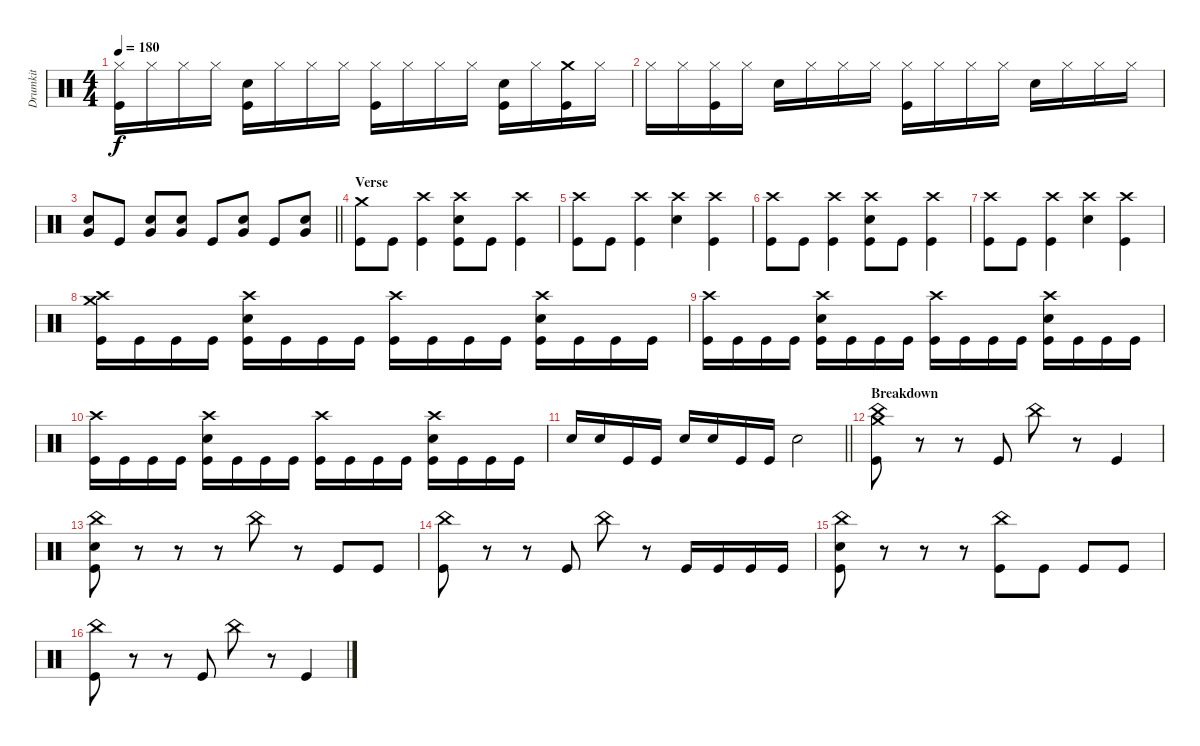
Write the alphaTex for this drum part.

\track ("Drumkit" "Drumkit") {instrument percussion}
\staff {score}
\articulation defaults
\ts (4 4)
\tempo 180
\clef neutral
\ks c
("Hi-Hat (closed)" "Kick (hit)").16{dy f} "Hi-Hat (closed)".16 "Hi-Hat (closed)".16 "Hi-Hat (closed)".16 ("Snare (hit) 2" "Kick (hit)").16 "Hi-Hat (closed)".16 "Hi-Hat (closed)".16 "Hi-Hat (closed)".16 ("Hi-Hat (closed)" "Kick (hit)").16 "Hi-Hat (closed)".16 "Hi-Hat (closed)".16 "Hi-Hat (closed)".16 ("Snare (hit) 2" "Kick (hit)").16 "Hi-Hat (closed)".16 ("Crash medium (hit)" "Kick (hit)").16 "Hi-Hat (closed)".16 |
"Hi-Hat (closed)".16 "Hi-Hat (closed)".16 ("Hi-Hat (closed)" "Kick (hit)").16 "Hi-Hat (closed)".16 "Snare (hit) 2".16 "Hi-Hat (closed)".16 "Hi-Hat (closed)".16 "Hi-Hat (closed)".16 ("Hi-Hat (closed)" "Kick (hit)").16 "Hi-Hat (closed)".16 "Hi-Hat (closed)".16 "Hi-Hat (closed)".16 "Snare (hit) 2".16 "Hi-Hat (closed)".16 "Hi-Hat (closed)".16 "Hi-Hat (closed)".16 |
\barLineRight lightlight
("Very Low Tom (hit)" "Snare (hit) 2").8 "Kick (hit)".8 ("Snare (hit) 2" "Very Low Tom (hit)").8 ("Snare (hit) 2" "Very Low Tom (hit)").8 "Kick (hit)".8 ("Snare (hit) 2" "Very Low Tom (hit)").8 "Kick (hit)".8 ("Very Low Tom (hit)" "Snare (hit) 2").8 |
\section ("" "Verse")
("Crash medium (hit)" "Kick (hit)").8 "Kick (hit)".8 ("Crash high (hit)" "Kick (hit)").4 ("Crash high (hit)" "Snare (hit) 2" "Kick (hit)").8 "Kick (hit)".8 ("Crash high (hit)" "Kick (hit)").4 |
("Crash high (hit)" "Kick (hit)").8 "Kick (hit)".8 ("Crash high (hit)" "Kick (hit)").4 ("Crash high (hit)" "Snare (hit) 2").4 ("Crash high (hit)" "Kick (hit)").4 |
("Crash high (hit)" "Kick (hit)").8 "Kick (hit)".8 ("Crash high (hit)" "Kick (hit)").4 ("Crash high (hit)" "Snare (hit) 2" "Kick (hit)").8 "Kick (hit)".8 ("Crash high (hit)" "Kick (hit)").4 |
("Crash high (hit)" "Kick (hit)").8 "Kick (hit)".8 ("Crash high (hit)" "Kick (hit)").4 ("Crash high (hit)" "Snare (hit) 2").4 ("Crash high (hit)" "Kick (hit)").4 |
("Crash medium (hit)" "Crash high (hit)" "Kick (hit)").16 "Kick (hit)".16 "Kick (hit)".16 "Kick (hit)".16 ("Crash high (hit)" "Snare (hit) 2" "Kick (hit)").16 "Kick (hit)".16 "Kick (hit)".16 "Kick (hit)".16 ("Crash high (hit)" "Kick (hit)").16 "Kick (hit)".16 "Kick (hit)".16 "Kick (hit)".16 ("Crash high (hit)" "Snare (hit) 2" "Kick (hit)").16 "Kick (hit)".16 "Kick (hit)".16 "Kick (hit)".16 |
("Crash high (hit)" "Kick (hit)").16 "Kick (hit)".16 "Kick (hit)".16 "Kick (hit)".16 ("Crash high (hit)" "Snare (hit) 2" "Kick (hit)").16 "Kick (hit)".16 "Kick (hit)".16 "Kick (hit)".16 ("Crash high (hit)" "Kick (hit)").16 "Kick (hit)".16 "Kick (hit)".16 "Kick (hit)".16 ("Crash high (hit)" "Snare (hit) 2" "Kick (hit)").16 "Kick (hit)".16 "Kick (hit)".16 "Kick (hit)".16 |
("Crash high (hit)" "Kick (hit)").16 "Kick (hit)".16 "Kick (hit)".16 "Kick (hit)".16 ("Crash high (hit)" "Snare (hit) 2" "Kick (hit)").16 "Kick (hit)".16 "Kick (hit)".16 "Kick (hit)".16 ("Crash high (hit)" "Kick (hit)").16 "Kick (hit)".16 "Kick (hit)".16 "Kick (hit)".16 ("Crash high (hit)" "Snare (hit) 2" "Kick (hit)").16 "Kick (hit)".16 "Kick (hit)".16 "Kick (hit)".16 |
\barLineRight lightlight "Snare (hit) 2".16 "Snare (hit) 2".16 "Kick (hit)".16 "Kick (hit)".16 "Snare (hit) 2".16 "Snare (hit) 2".16 "Kick (hit)".16 "Kick (hit)".16 "Snare (hit) 2".2
|
\section ("" "Breakdown")
("Crash medium (hit)" "China (hit)" "Kick (hit)").8 r.8 r.8 "Kick (hit)".8 "China (hit)".8 r.8 "Kick (hit)".4 |
("China (hit)" "Snare (hit) 2" "Kick (hit)").8 r.8 r.8 r.8 "China (hit)".8 r.8 "Kick (hit)".8 "Kick (hit)".8 |
("China (hit)" "Kick (hit)").8 r.8 r.8 "Kick (hit)".8 "China (hit)".8 r.8 "Kick (hit)".16 "Kick (hit)".16 "Kick (hit)".16 "Kick (hit)".16 |
("China (hit)" "Snare (hit) 2" "Kick (hit)").8 r.8 r.8 r.8 ("China (hit)" "Kick (hit)").8 "Kick (hit)".8 "Kick (hit)".8 "Kick (hit)".8 |
("China (hit)" "Kick (hit)").8 r.8 r.8 "Kick (hit)".8 "China (hit)".8 r.8 "Kick (hit)".4
